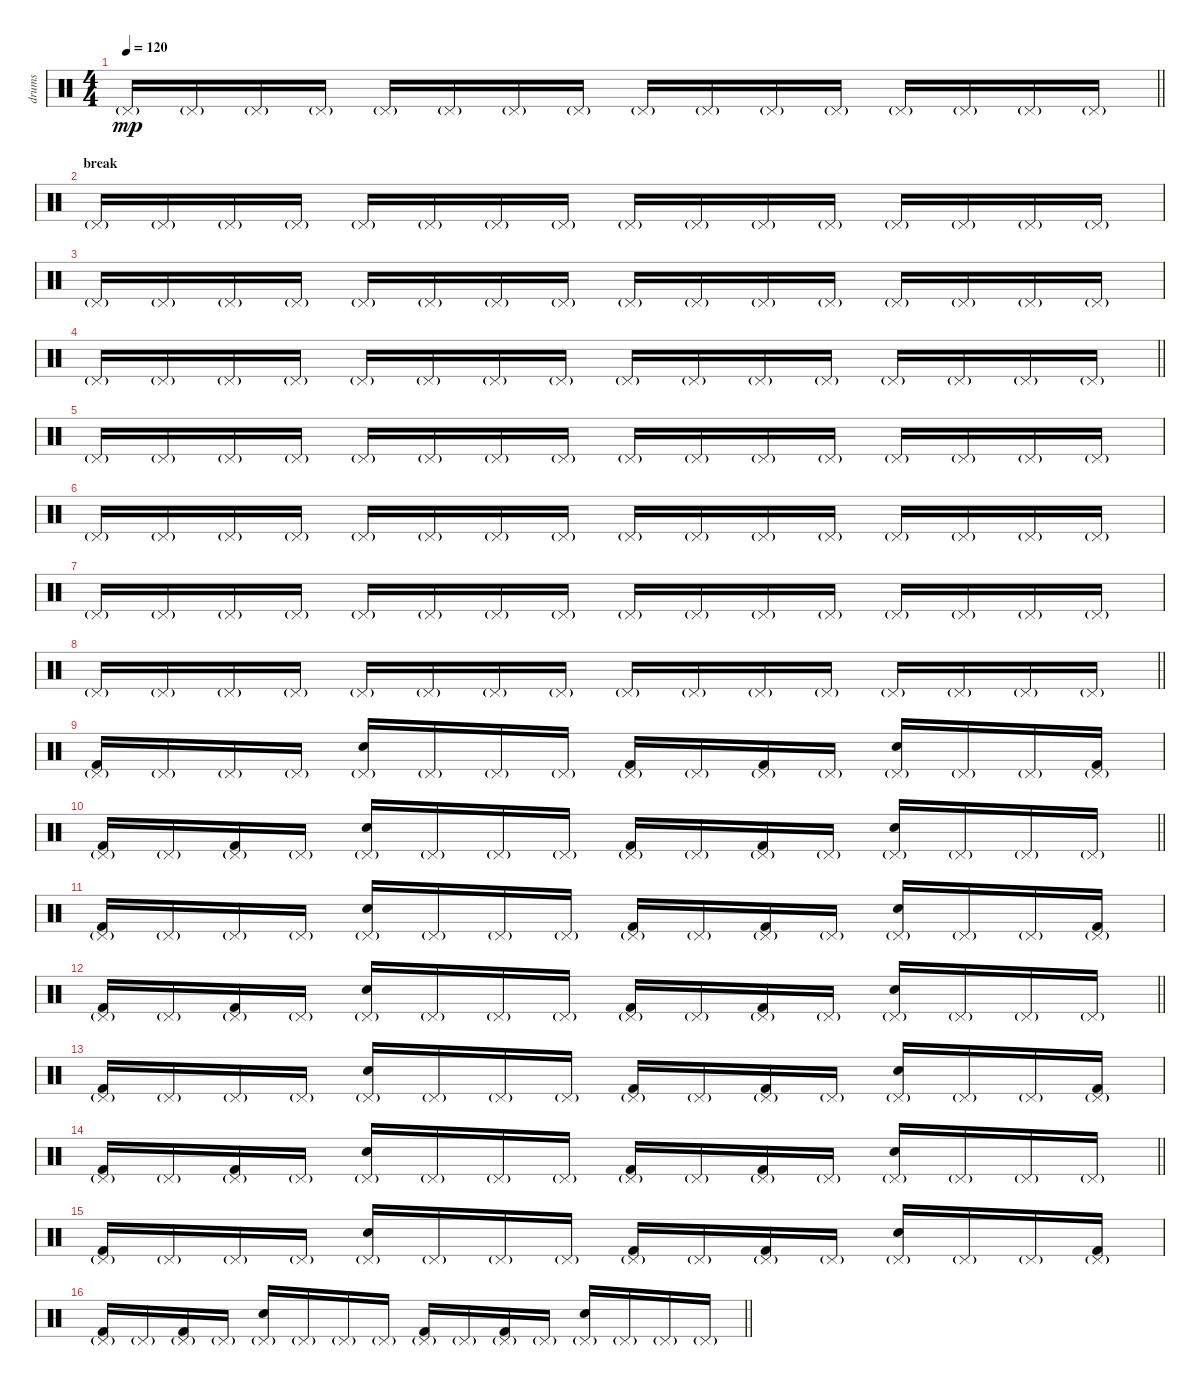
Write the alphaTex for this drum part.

\track ("drums" "drums") {instrument percussion}
\staff {score}
\articulation defaults
\ts (4 4)
\tempo 120
\clef neutral
\barLineRight lightlight
\ks c "Pedal Hi-Hat (hit)"{g}.16{dy mp} "Pedal Hi-Hat (hit)"{g}.16 "Pedal Hi-Hat (hit)"{g}.16 "Pedal Hi-Hat (hit)"{g}.16 "Pedal Hi-Hat (hit)"{g}.16 "Pedal Hi-Hat (hit)"{g}.16 "Pedal Hi-Hat (hit)"{g}.16 "Pedal Hi-Hat (hit)"{g}.16 "Pedal Hi-Hat (hit)"{g}.16 "Pedal Hi-Hat (hit)"{g}.16 "Pedal Hi-Hat (hit)"{g}.16 "Pedal Hi-Hat (hit)"{g}.16 "Pedal Hi-Hat (hit)"{g}.16 "Pedal Hi-Hat (hit)"{g}.16 "Pedal Hi-Hat (hit)"{g}.16 "Pedal Hi-Hat (hit)"{g}.16
|
\section ("" "break ")
"Pedal Hi-Hat (hit)"{g}.16 "Pedal Hi-Hat (hit)"{g}.16 "Pedal Hi-Hat (hit)"{g}.16 "Pedal Hi-Hat (hit)"{g}.16 "Pedal Hi-Hat (hit)"{g}.16 "Pedal Hi-Hat (hit)"{g}.16 "Pedal Hi-Hat (hit)"{g}.16 "Pedal Hi-Hat (hit)"{g}.16 "Pedal Hi-Hat (hit)"{g}.16 "Pedal Hi-Hat (hit)"{g}.16 "Pedal Hi-Hat (hit)"{g}.16 "Pedal Hi-Hat (hit)"{g}.16 "Pedal Hi-Hat (hit)"{g}.16 "Pedal Hi-Hat (hit)"{g}.16 "Pedal Hi-Hat (hit)"{g}.16 "Pedal Hi-Hat (hit)"{g}.16 |
"Pedal Hi-Hat (hit)"{g}.16 "Pedal Hi-Hat (hit)"{g}.16 "Pedal Hi-Hat (hit)"{g}.16 "Pedal Hi-Hat (hit)"{g}.16 "Pedal Hi-Hat (hit)"{g}.16 "Pedal Hi-Hat (hit)"{g}.16 "Pedal Hi-Hat (hit)"{g}.16 "Pedal Hi-Hat (hit)"{g}.16 "Pedal Hi-Hat (hit)"{g}.16 "Pedal Hi-Hat (hit)"{g}.16 "Pedal Hi-Hat (hit)"{g}.16 "Pedal Hi-Hat (hit)"{g}.16 "Pedal Hi-Hat (hit)"{g}.16 "Pedal Hi-Hat (hit)"{g}.16 "Pedal Hi-Hat (hit)"{g}.16 "Pedal Hi-Hat (hit)"{g}.16 |
\barLineRight lightlight "Pedal Hi-Hat (hit)"{g}.16 "Pedal Hi-Hat (hit)"{g}.16 "Pedal Hi-Hat (hit)"{g}.16 "Pedal Hi-Hat (hit)"{g}.16 "Pedal Hi-Hat (hit)"{g}.16 "Pedal Hi-Hat (hit)"{g}.16 "Pedal Hi-Hat (hit)"{g}.16 "Pedal Hi-Hat (hit)"{g}.16 "Pedal Hi-Hat (hit)"{g}.16 "Pedal Hi-Hat (hit)"{g}.16 "Pedal Hi-Hat (hit)"{g}.16 "Pedal Hi-Hat (hit)"{g}.16 "Pedal Hi-Hat (hit)"{g}.16 "Pedal Hi-Hat (hit)"{g}.16 "Pedal Hi-Hat (hit)"{g}.16 "Pedal Hi-Hat (hit)"{g}.16
|
"Pedal Hi-Hat (hit)"{g}.16 "Pedal Hi-Hat (hit)"{g}.16 "Pedal Hi-Hat (hit)"{g}.16 "Pedal Hi-Hat (hit)"{g}.16 "Pedal Hi-Hat (hit)"{g}.16 "Pedal Hi-Hat (hit)"{g}.16 "Pedal Hi-Hat (hit)"{g}.16 "Pedal Hi-Hat (hit)"{g}.16 "Pedal Hi-Hat (hit)"{g}.16 "Pedal Hi-Hat (hit)"{g}.16 "Pedal Hi-Hat (hit)"{g}.16 "Pedal Hi-Hat (hit)"{g}.16 "Pedal Hi-Hat (hit)"{g}.16 "Pedal Hi-Hat (hit)"{g}.16 "Pedal Hi-Hat (hit)"{g}.16 "Pedal Hi-Hat (hit)"{g}.16 |
"Pedal Hi-Hat (hit)"{g}.16 "Pedal Hi-Hat (hit)"{g}.16 "Pedal Hi-Hat (hit)"{g}.16 "Pedal Hi-Hat (hit)"{g}.16 "Pedal Hi-Hat (hit)"{g}.16 "Pedal Hi-Hat (hit)"{g}.16 "Pedal Hi-Hat (hit)"{g}.16 "Pedal Hi-Hat (hit)"{g}.16 "Pedal Hi-Hat (hit)"{g}.16 "Pedal Hi-Hat (hit)"{g}.16 "Pedal Hi-Hat (hit)"{g}.16 "Pedal Hi-Hat (hit)"{g}.16 "Pedal Hi-Hat (hit)"{g}.16 "Pedal Hi-Hat (hit)"{g}.16 "Pedal Hi-Hat (hit)"{g}.16 "Pedal Hi-Hat (hit)"{g}.16 |
"Pedal Hi-Hat (hit)"{g}.16 "Pedal Hi-Hat (hit)"{g}.16 "Pedal Hi-Hat (hit)"{g}.16 "Pedal Hi-Hat (hit)"{g}.16 "Pedal Hi-Hat (hit)"{g}.16 "Pedal Hi-Hat (hit)"{g}.16 "Pedal Hi-Hat (hit)"{g}.16 "Pedal Hi-Hat (hit)"{g}.16 "Pedal Hi-Hat (hit)"{g}.16 "Pedal Hi-Hat (hit)"{g}.16 "Pedal Hi-Hat (hit)"{g}.16 "Pedal Hi-Hat (hit)"{g}.16 "Pedal Hi-Hat (hit)"{g}.16 "Pedal Hi-Hat (hit)"{g}.16 "Pedal Hi-Hat (hit)"{g}.16 "Pedal Hi-Hat (hit)"{g}.16 |
\barLineRight lightlight "Pedal Hi-Hat (hit)"{g}.16 "Pedal Hi-Hat (hit)"{g}.16 "Pedal Hi-Hat (hit)"{g}.16 "Pedal Hi-Hat (hit)"{g}.16 "Pedal Hi-Hat (hit)"{g}.16 "Pedal Hi-Hat (hit)"{g}.16 "Pedal Hi-Hat (hit)"{g}.16 "Pedal Hi-Hat (hit)"{g}.16 "Pedal Hi-Hat (hit)"{g}.16 "Pedal Hi-Hat (hit)"{g}.16 "Pedal Hi-Hat (hit)"{g}.16 "Pedal Hi-Hat (hit)"{g}.16 "Pedal Hi-Hat (hit)"{g}.16 "Pedal Hi-Hat (hit)"{g}.16 "Pedal Hi-Hat (hit)"{g}.16 "Pedal Hi-Hat (hit)"{g}.16
|
("Kick (hit) 2" "Pedal Hi-Hat (hit)"{g}).16 "Pedal Hi-Hat (hit)"{g}.16 "Pedal Hi-Hat (hit)"{g}.16 "Pedal Hi-Hat (hit)"{g}.16 ("Hand Clap (hit)" "Pedal Hi-Hat (hit)"{g}).16 "Pedal Hi-Hat (hit)"{g}.16 "Pedal Hi-Hat (hit)"{g}.16 "Pedal Hi-Hat (hit)"{g}.16 ("Kick (hit) 2" "Pedal Hi-Hat (hit)"{g}).16 "Pedal Hi-Hat (hit)"{g}.16 ("Kick (hit) 2" "Pedal Hi-Hat (hit)"{g}).16 "Pedal Hi-Hat (hit)"{g}.16 ("Hand Clap (hit)" "Pedal Hi-Hat (hit)"{g}).16 "Pedal Hi-Hat (hit)"{g}.16 "Pedal Hi-Hat (hit)"{g}.16 ("Kick (hit) 2" "Pedal Hi-Hat (hit)"{g}).16 |
\barLineRight lightlight
("Kick (hit) 2" "Pedal Hi-Hat (hit)"{g}).16 "Pedal Hi-Hat (hit)"{g}.16 ("Kick (hit) 2" "Pedal Hi-Hat (hit)"{g}).16 "Pedal Hi-Hat (hit)"{g}.16 ("Hand Clap (hit)" "Pedal Hi-Hat (hit)"{g}).16 "Pedal Hi-Hat (hit)"{g}.16 "Pedal Hi-Hat (hit)"{g}.16 "Pedal Hi-Hat (hit)"{g}.16 ("Kick (hit) 2" "Pedal Hi-Hat (hit)"{g}).16 "Pedal Hi-Hat (hit)"{g}.16 ("Kick (hit) 2" "Pedal Hi-Hat (hit)"{g}).16 "Pedal Hi-Hat (hit)"{g}.16 ("Hand Clap (hit)" "Pedal Hi-Hat (hit)"{g}).16 "Pedal Hi-Hat (hit)"{g}.16 "Pedal Hi-Hat (hit)"{g}.16 "Pedal Hi-Hat (hit)"{g}.16 |
("Kick (hit) 2" "Pedal Hi-Hat (hit)"{g}).16 "Pedal Hi-Hat (hit)"{g}.16 "Pedal Hi-Hat (hit)"{g}.16 "Pedal Hi-Hat (hit)"{g}.16 ("Hand Clap (hit)" "Pedal Hi-Hat (hit)"{g}).16 "Pedal Hi-Hat (hit)"{g}.16 "Pedal Hi-Hat (hit)"{g}.16 "Pedal Hi-Hat (hit)"{g}.16 ("Kick (hit) 2" "Pedal Hi-Hat (hit)"{g}).16 "Pedal Hi-Hat (hit)"{g}.16 ("Kick (hit) 2" "Pedal Hi-Hat (hit)"{g}).16 "Pedal Hi-Hat (hit)"{g}.16 ("Hand Clap (hit)" "Pedal Hi-Hat (hit)"{g}).16 "Pedal Hi-Hat (hit)"{g}.16 "Pedal Hi-Hat (hit)"{g}.16 ("Kick (hit) 2" "Pedal Hi-Hat (hit)"{g}).16 |
\barLineRight lightlight
("Kick (hit) 2" "Pedal Hi-Hat (hit)"{g}).16 "Pedal Hi-Hat (hit)"{g}.16 ("Kick (hit) 2" "Pedal Hi-Hat (hit)"{g}).16 "Pedal Hi-Hat (hit)"{g}.16 ("Hand Clap (hit)" "Pedal Hi-Hat (hit)"{g}).16 "Pedal Hi-Hat (hit)"{g}.16 "Pedal Hi-Hat (hit)"{g}.16 "Pedal Hi-Hat (hit)"{g}.16 ("Kick (hit) 2" "Pedal Hi-Hat (hit)"{g}).16 "Pedal Hi-Hat (hit)"{g}.16 ("Kick (hit) 2" "Pedal Hi-Hat (hit)"{g}).16 "Pedal Hi-Hat (hit)"{g}.16 ("Hand Clap (hit)" "Pedal Hi-Hat (hit)"{g}).16 "Pedal Hi-Hat (hit)"{g}.16 "Pedal Hi-Hat (hit)"{g}.16 "Pedal Hi-Hat (hit)"{g}.16 |
("Kick (hit) 2" "Pedal Hi-Hat (hit)"{g}).16 "Pedal Hi-Hat (hit)"{g}.16 "Pedal Hi-Hat (hit)"{g}.16 "Pedal Hi-Hat (hit)"{g}.16 ("Hand Clap (hit)" "Pedal Hi-Hat (hit)"{g}).16 "Pedal Hi-Hat (hit)"{g}.16 "Pedal Hi-Hat (hit)"{g}.16 "Pedal Hi-Hat (hit)"{g}.16 ("Kick (hit) 2" "Pedal Hi-Hat (hit)"{g}).16 "Pedal Hi-Hat (hit)"{g}.16 ("Kick (hit) 2" "Pedal Hi-Hat (hit)"{g}).16 "Pedal Hi-Hat (hit)"{g}.16 ("Hand Clap (hit)" "Pedal Hi-Hat (hit)"{g}).16 "Pedal Hi-Hat (hit)"{g}.16 "Pedal Hi-Hat (hit)"{g}.16 ("Kick (hit) 2" "Pedal Hi-Hat (hit)"{g}).16 |
\barLineRight lightlight
("Kick (hit) 2" "Pedal Hi-Hat (hit)"{g}).16 "Pedal Hi-Hat (hit)"{g}.16 ("Kick (hit) 2" "Pedal Hi-Hat (hit)"{g}).16 "Pedal Hi-Hat (hit)"{g}.16 ("Hand Clap (hit)" "Pedal Hi-Hat (hit)"{g}).16 "Pedal Hi-Hat (hit)"{g}.16 "Pedal Hi-Hat (hit)"{g}.16 "Pedal Hi-Hat (hit)"{g}.16 ("Kick (hit) 2" "Pedal Hi-Hat (hit)"{g}).16 "Pedal Hi-Hat (hit)"{g}.16 ("Kick (hit) 2" "Pedal Hi-Hat (hit)"{g}).16 "Pedal Hi-Hat (hit)"{g}.16 ("Hand Clap (hit)" "Pedal Hi-Hat (hit)"{g}).16 "Pedal Hi-Hat (hit)"{g}.16 "Pedal Hi-Hat (hit)"{g}.16 "Pedal Hi-Hat (hit)"{g}.16 |
("Kick (hit) 2" "Pedal Hi-Hat (hit)"{g}).16 "Pedal Hi-Hat (hit)"{g}.16 "Pedal Hi-Hat (hit)"{g}.16 "Pedal Hi-Hat (hit)"{g}.16 ("Hand Clap (hit)" "Pedal Hi-Hat (hit)"{g}).16 "Pedal Hi-Hat (hit)"{g}.16 "Pedal Hi-Hat (hit)"{g}.16 "Pedal Hi-Hat (hit)"{g}.16 ("Kick (hit) 2" "Pedal Hi-Hat (hit)"{g}).16 "Pedal Hi-Hat (hit)"{g}.16 ("Kick (hit) 2" "Pedal Hi-Hat (hit)"{g}).16 "Pedal Hi-Hat (hit)"{g}.16 ("Hand Clap (hit)" "Pedal Hi-Hat (hit)"{g}).16 "Pedal Hi-Hat (hit)"{g}.16 "Pedal Hi-Hat (hit)"{g}.16 ("Kick (hit) 2" "Pedal Hi-Hat (hit)"{g}).16 |
\barLineRight lightlight
("Kick (hit) 2" "Pedal Hi-Hat (hit)"{g}).16 "Pedal Hi-Hat (hit)"{g}.16 ("Kick (hit) 2" "Pedal Hi-Hat (hit)"{g}).16 "Pedal Hi-Hat (hit)"{g}.16 ("Hand Clap (hit)" "Pedal Hi-Hat (hit)"{g}).16 "Pedal Hi-Hat (hit)"{g}.16 "Pedal Hi-Hat (hit)"{g}.16 "Pedal Hi-Hat (hit)"{g}.16 ("Kick (hit) 2" "Pedal Hi-Hat (hit)"{g}).16 "Pedal Hi-Hat (hit)"{g}.16 ("Kick (hit) 2" "Pedal Hi-Hat (hit)"{g}).16 "Pedal Hi-Hat (hit)"{g}.16 ("Hand Clap (hit)" "Pedal Hi-Hat (hit)"{g}).16 "Pedal Hi-Hat (hit)"{g}.16 "Pedal Hi-Hat (hit)"{g}.16 "Pedal Hi-Hat (hit)"{g}.16
